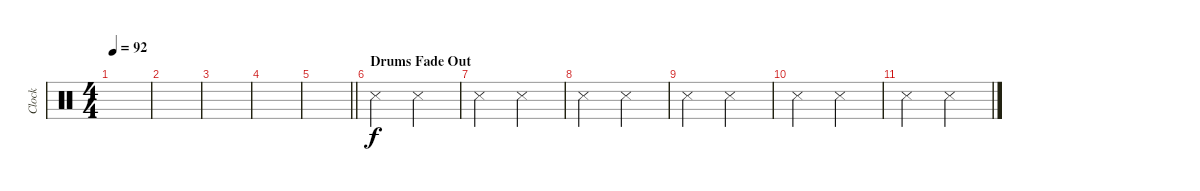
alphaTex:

\track ("Clock" "Clock") {instrument percussion}
\staff {score}
\articulation defaults
\ts (4 4)
\tempo 92
\clef neutral
\ks c
|
|
|
|
\barLineRight lightlight
|
\section ("" "Drums Fade Out")
"Snare (side stick) 3".2{dy f} "Snare (side stick) 3".2 |
"Snare (side stick) 3".2 "Snare (side stick) 3".2 |
"Snare (side stick) 3".2 "Snare (side stick) 3".2 |
"Snare (side stick) 3".2 "Snare (side stick) 3".2 |
"Snare (side stick) 3".2 "Snare (side stick) 3".2 |
"Snare (side stick) 3".2 "Snare (side stick) 3".2
